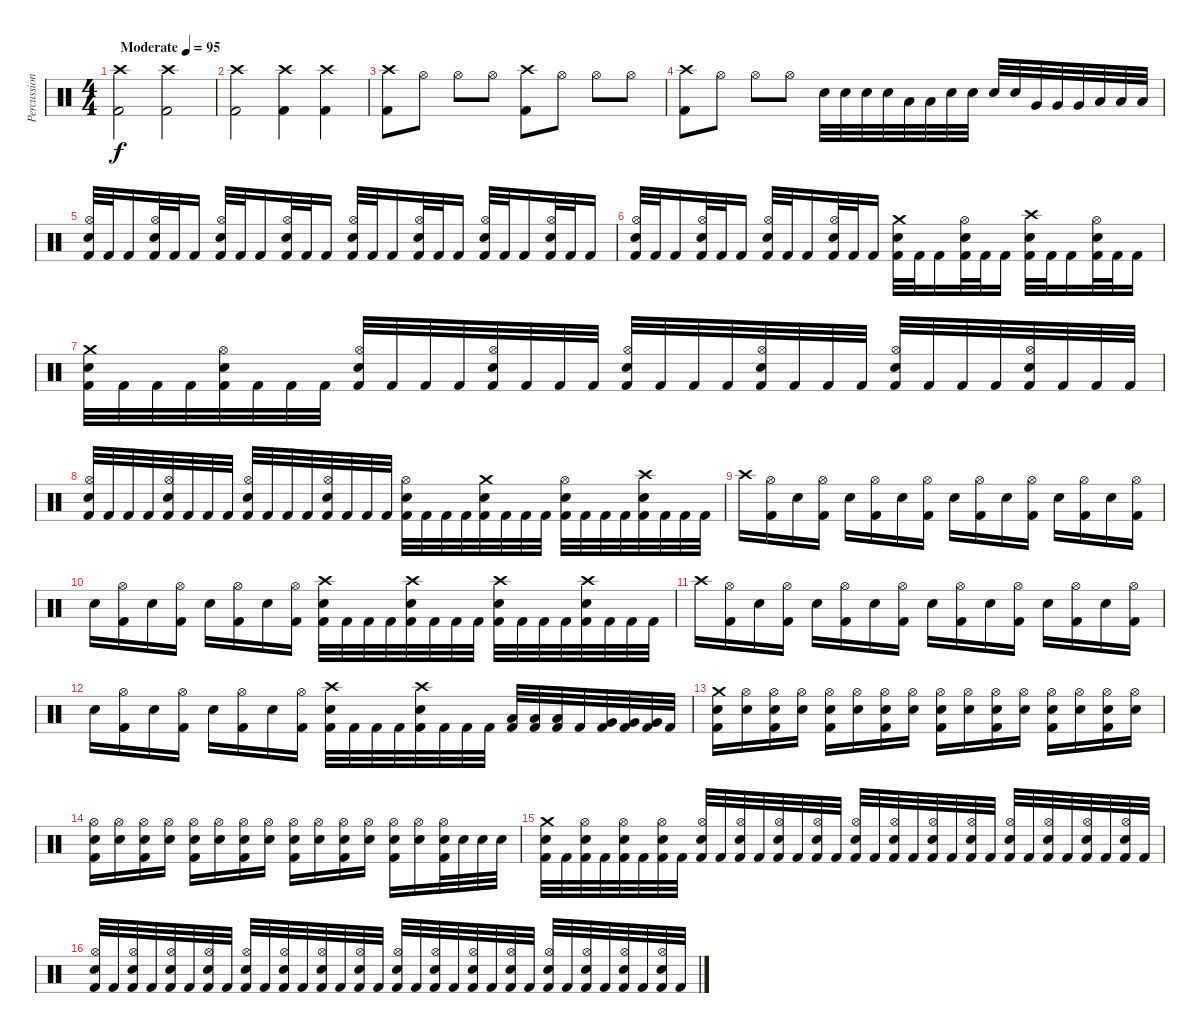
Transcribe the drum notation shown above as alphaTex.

\track ("Percussion" "Percussion") {instrument percussion}
\staff {score}
\articulation defaults
\ts (4 4)
\tempo (95 "Moderate")
\clef neutral
\ks c
("Crash high (hit)" "Kick (hit) 2").2{dy f} ("Crash high (hit)" "Kick (hit) 2").2 |
("Crash high (hit)" "Kick (hit) 2").2 ("Crash high (hit)" "Kick (hit) 2").4 ("Crash high (hit)" "Kick (hit) 2").4 |
("Crash high (hit)" "Kick (hit) 2").8 "Hi-Hat (open)".8 "Hi-Hat (open)".8 "Hi-Hat (open)".8 ("Crash high (hit)" "Kick (hit) 2").8 "Hi-Hat (open)".8 "Hi-Hat (open)".8 "Hi-Hat (open)".8 |
("Crash high (hit)" "Kick (hit) 2").8 "Hi-Hat (open)".8 "Hi-Hat (open)".8 "Hi-Hat (open)".8 "Electric Snare (hit)".32 "Electric Snare (hit)".32 "Electric Snare (hit)".32 "Electric Snare (hit)".32 "Low Tom (hit)".32 "Low Tom (hit)".32 "Electric Snare (hit)".32 "Electric Snare (hit)".32 "Electric Snare (hit)".32 "Electric Snare (hit)".32 "Very Low Tom (hit)".32 "Very Low Tom (hit)".32 "Very Low Tom (hit)".32 "Low Floor Tom (hit)".32 "Low Floor Tom (hit)".32 "Low Floor Tom (hit)".32 |
("Hi-Hat (open)" "Electric Snare (hit)" "Kick (hit) 2").32 "Kick (hit) 2".32 "Kick (hit) 2".16 ("Hi-Hat (open)" "Electric Snare (hit)" "Kick (hit) 2").32 "Kick (hit) 2".32 "Kick (hit) 2".16 ("Hi-Hat (open)" "Electric Snare (hit)" "Kick (hit) 2").32 "Kick (hit) 2".32 "Kick (hit) 2".16 ("Hi-Hat (open)" "Electric Snare (hit)" "Kick (hit) 2").32 "Kick (hit) 2".32 "Kick (hit) 2".16 ("Hi-Hat (open)" "Electric Snare (hit)" "Kick (hit) 2").32 "Kick (hit) 2".32 "Kick (hit) 2".16 ("Hi-Hat (open)" "Electric Snare (hit)" "Kick (hit) 2").32 "Kick (hit) 2".32 "Kick (hit) 2".16 ("Hi-Hat (open)" "Electric Snare (hit)" "Kick (hit) 2").32 "Kick (hit) 2".32 "Kick (hit) 2".16 ("Hi-Hat (open)" "Electric Snare (hit)" "Kick (hit) 2").32 "Kick (hit) 2".32 "Kick (hit) 2".16 |
("Hi-Hat (open)" "Electric Snare (hit)" "Kick (hit) 2").32 "Kick (hit) 2".32 "Kick (hit) 2".16 ("Hi-Hat (open)" "Electric Snare (hit)" "Kick (hit) 2").32 "Kick (hit) 2".32 "Kick (hit) 2".16 ("Hi-Hat (open)" "Electric Snare (hit)" "Kick (hit) 2").32 "Kick (hit) 2".32 "Kick (hit) 2".16 ("Hi-Hat (open)" "Electric Snare (hit)" "Kick (hit) 2").32 "Kick (hit) 2".32 "Kick (hit) 2".16 ("Crash medium (hit)" "Electric Snare (hit)" "Kick (hit) 2").32 "Kick (hit) 2".32 "Kick (hit) 2".16 ("Hi-Hat (open)" "Electric Snare (hit)" "Kick (hit) 2").32 "Kick (hit) 2".32 "Kick (hit) 2".16 ("Crash high (hit)" "Electric Snare (hit)" "Kick (hit) 2").32 "Kick (hit) 2".32 "Kick (hit) 2".16 ("Hi-Hat (open)" "Electric Snare (hit)" "Kick (hit) 2").32 "Kick (hit) 2".32 "Kick (hit) 2".16 |
("Crash medium (hit)" "Electric Snare (hit)" "Kick (hit) 2").32 "Kick (hit) 2".32 "Kick (hit) 2".32 "Kick (hit) 2".32 ("Hi-Hat (open)" "Electric Snare (hit)" "Kick (hit) 2").32 "Kick (hit) 2".32 "Kick (hit) 2".32 "Kick (hit) 2".32 ("Hi-Hat (open)" "Electric Snare (hit)" "Kick (hit) 2").32 "Kick (hit) 2".32 "Kick (hit) 2".32 "Kick (hit) 2".32 ("Hi-Hat (open)" "Electric Snare (hit)" "Kick (hit) 2").32 "Kick (hit) 2".32 "Kick (hit) 2".32 "Kick (hit) 2".32 ("Hi-Hat (open)" "Electric Snare (hit)" "Kick (hit) 2").32 "Kick (hit) 2".32 "Kick (hit) 2".32 "Kick (hit) 2".32 ("Hi-Hat (open)" "Electric Snare (hit)" "Kick (hit) 2").32 "Kick (hit) 2".32 "Kick (hit) 2".32 "Kick (hit) 2".32 ("Hi-Hat (open)" "Electric Snare (hit)" "Kick (hit) 2").32 "Kick (hit) 2".32 "Kick (hit) 2".32 "Kick (hit) 2".32 ("Hi-Hat (open)" "Electric Snare (hit)" "Kick (hit) 2").32 "Kick (hit) 2".32 "Kick (hit) 2".32 "Kick (hit) 2".32 |
("Hi-Hat (open)" "Electric Snare (hit)" "Kick (hit) 2").32 "Kick (hit) 2".32 "Kick (hit) 2".32 "Kick (hit) 2".32 ("Hi-Hat (open)" "Electric Snare (hit)" "Kick (hit) 2").32 "Kick (hit) 2".32 "Kick (hit) 2".32 "Kick (hit) 2".32 ("Hi-Hat (open)" "Electric Snare (hit)" "Kick (hit) 2").32 "Kick (hit) 2".32 "Kick (hit) 2".32 "Kick (hit) 2".32 ("Hi-Hat (open)" "Electric Snare (hit)" "Kick (hit) 2").32 "Kick (hit) 2".32 "Kick (hit) 2".32 "Kick (hit) 2".32 ("Hi-Hat (open)" "Electric Snare (hit)" "Kick (hit) 2").32 "Kick (hit) 2".32 "Kick (hit) 2".32 "Kick (hit) 2".32 ("Crash medium (hit)" "Electric Snare (hit)" "Kick (hit) 2").32 "Kick (hit) 2".32 "Kick (hit) 2".32 "Kick (hit) 2".32 ("Hi-Hat (open)" "Electric Snare (hit)" "Kick (hit) 2").32 "Kick (hit) 2".32 "Kick (hit) 2".32 "Kick (hit) 2".32 ("Crash high (hit)" "Electric Snare (hit)" "Kick (hit) 2").32 "Kick (hit) 2".32 "Kick (hit) 2".32 "Kick (hit) 2".32 |
"Crash high (hit)".16 ("Hi-Hat (open)" "Kick (hit) 2").16 "Electric Snare (hit)".16 ("Hi-Hat (open)" "Kick (hit) 2").16 "Electric Snare (hit)".16 ("Hi-Hat (open)" "Kick (hit) 2").16 "Electric Snare (hit)".16 ("Hi-Hat (open)" "Kick (hit) 2").16 "Electric Snare (hit)".16 ("Hi-Hat (open)" "Kick (hit) 2").16 "Electric Snare (hit)".16 ("Hi-Hat (open)" "Kick (hit) 2").16 "Electric Snare (hit)".16 ("Hi-Hat (open)" "Kick (hit) 2").16 "Electric Snare (hit)".16 ("Hi-Hat (open)" "Kick (hit) 2").16 |
"Electric Snare (hit)".16 ("Hi-Hat (open)" "Kick (hit) 2").16 "Electric Snare (hit)".16 ("Hi-Hat (open)" "Kick (hit) 2").16 "Electric Snare (hit)".16 ("Hi-Hat (open)" "Kick (hit) 2").16 "Electric Snare (hit)".16 ("Hi-Hat (open)" "Kick (hit) 2").16 ("Crash high (hit)" "Electric Snare (hit)" "Kick (hit) 2").32 "Kick (hit) 2".32 "Kick (hit) 2".32 "Kick (hit) 2".32 ("Crash high (hit)" "Electric Snare (hit)" "Kick (hit) 2").32 "Kick (hit) 2".32 "Kick (hit) 2".32 "Kick (hit) 2".32 ("Crash high (hit)" "Electric Snare (hit)" "Kick (hit) 2").32 "Kick (hit) 2".32 "Kick (hit) 2".32 "Kick (hit) 2".32 ("Crash high (hit)" "Electric Snare (hit)" "Kick (hit) 2").32 "Kick (hit) 2".32 "Kick (hit) 2".32 "Kick (hit) 2".32 |
"Crash high (hit)".16 ("Hi-Hat (open)" "Kick (hit) 2").16 "Electric Snare (hit)".16 ("Hi-Hat (open)" "Kick (hit) 2").16 "Electric Snare (hit)".16 ("Hi-Hat (open)" "Kick (hit) 2").16 "Electric Snare (hit)".16 ("Hi-Hat (open)" "Kick (hit) 2").16 "Electric Snare (hit)".16 ("Hi-Hat (open)" "Kick (hit) 2").16 "Electric Snare (hit)".16 ("Hi-Hat (open)" "Kick (hit) 2").16 "Electric Snare (hit)".16 ("Hi-Hat (open)" "Kick (hit) 2").16 "Electric Snare (hit)".16 ("Hi-Hat (open)" "Kick (hit) 2").16 |
"Electric Snare (hit)".16 ("Hi-Hat (open)" "Kick (hit) 2").16 "Electric Snare (hit)".16 ("Hi-Hat (open)" "Kick (hit) 2").16 "Electric Snare (hit)".16 ("Hi-Hat (open)" "Kick (hit) 2").16 "Electric Snare (hit)".16 ("Hi-Hat (open)" "Kick (hit) 2").16 ("Crash high (hit)" "Electric Snare (hit)" "Kick (hit) 2").32 "Kick (hit) 2".32 "Kick (hit) 2".32 "Kick (hit) 2".32 ("Crash high (hit)" "Electric Snare (hit)" "Kick (hit) 2").32 "Kick (hit) 2".32 "Kick (hit) 2".32 "Kick (hit) 2".32 ("Low Tom (hit)" "Kick (hit) 2").32 ("Low Tom (hit)" "Kick (hit) 2").32 ("Low Tom (hit)" "Kick (hit) 2").32 "Kick (hit) 2".32 ("Very Low Tom (hit)" "Kick (hit) 2").32 ("Very Low Tom (hit)" "Kick (hit) 2").32 ("Very Low Tom (hit)" "Kick (hit) 2").32 "Kick (hit) 2".32 |
("Crash medium (hit)" "Electric Snare (hit)" "Kick (hit) 2").16 ("Hi-Hat (open)" "Electric Snare (hit)").16 ("Hi-Hat (open)" "Electric Snare (hit)" "Kick (hit) 2").16 ("Hi-Hat (open)" "Electric Snare (hit)").16 ("Hi-Hat (open)" "Electric Snare (hit)" "Kick (hit) 2").16 ("Hi-Hat (open)" "Electric Snare (hit)").16 ("Hi-Hat (open)" "Electric Snare (hit)" "Kick (hit) 2").16 ("Hi-Hat (open)" "Electric Snare (hit)").16 ("Hi-Hat (open)" "Electric Snare (hit)" "Kick (hit) 2").16 ("Hi-Hat (open)" "Electric Snare (hit)").16 ("Hi-Hat (open)" "Electric Snare (hit)" "Kick (hit) 2").16 ("Hi-Hat (open)" "Electric Snare (hit)").16 ("Hi-Hat (open)" "Electric Snare (hit)" "Kick (hit) 2").16 ("Hi-Hat (open)" "Electric Snare (hit)").16 ("Hi-Hat (open)" "Electric Snare (hit)" "Kick (hit) 2").16 ("Hi-Hat (open)" "Electric Snare (hit)").16 |
("Hi-Hat (open)" "Electric Snare (hit)" "Kick (hit) 2").16 ("Hi-Hat (open)" "Electric Snare (hit)").16 ("Hi-Hat (open)" "Electric Snare (hit)" "Kick (hit) 2").16 ("Hi-Hat (open)" "Electric Snare (hit)").16 ("Hi-Hat (open)" "Electric Snare (hit)" "Kick (hit) 2").16 ("Hi-Hat (open)" "Electric Snare (hit)").16 ("Hi-Hat (open)" "Electric Snare (hit)" "Kick (hit) 2").16 ("Hi-Hat (open)" "Electric Snare (hit)").16 ("Hi-Hat (open)" "Electric Snare (hit)" "Kick (hit) 2").16 ("Hi-Hat (open)" "Electric Snare (hit)").16 ("Hi-Hat (open)" "Electric Snare (hit)" "Kick (hit) 2").16 ("Hi-Hat (open)" "Electric Snare (hit)").16 ("Hi-Hat (open)" "Electric Snare (hit)" "Kick (hit) 2").16 ("Hi-Hat (open)" "Electric Snare (hit)").16 ("Hi-Hat (open)" "Electric Snare (hit)" "Kick (hit) 2").32 "Electric Snare (hit)".32 "Electric Snare (hit)".32 "Electric Snare (hit)".32 |
("Crash medium (hit)" "Electric Snare (hit)" "Kick (hit) 2").32 "Kick (hit) 2".32 ("Hi-Hat (open)" "Electric Snare (hit)" "Kick (hit) 2").32 "Kick (hit) 2".32 ("Hi-Hat (open)" "Electric Snare (hit)" "Kick (hit) 2").32 "Kick (hit) 2".32 ("Hi-Hat (open)" "Electric Snare (hit)" "Kick (hit) 2").32 "Kick (hit) 2".32 ("Hi-Hat (open)" "Electric Snare (hit)" "Kick (hit) 2").32 "Kick (hit) 2".32 ("Hi-Hat (open)" "Electric Snare (hit)" "Kick (hit) 2").32 "Kick (hit) 2".32 ("Hi-Hat (open)" "Electric Snare (hit)" "Kick (hit) 2").32 "Kick (hit) 2".32 ("Hi-Hat (open)" "Electric Snare (hit)" "Kick (hit) 2").32 "Kick (hit) 2".32 ("Hi-Hat (open)" "Electric Snare (hit)" "Kick (hit) 2").32 "Kick (hit) 2".32 ("Hi-Hat (open)" "Electric Snare (hit)" "Kick (hit) 2").32 "Kick (hit) 2".32 ("Hi-Hat (open)" "Electric Snare (hit)" "Kick (hit) 2").32 "Kick (hit) 2".32 ("Hi-Hat (open)" "Electric Snare (hit)" "Kick (hit) 2").32 "Kick (hit) 2".32 ("Hi-Hat (open)" "Electric Snare (hit)" "Kick (hit) 2").32 "Kick (hit) 2".32 ("Hi-Hat (open)" "Electric Snare (hit)" "Kick (hit) 2").32 "Kick (hit) 2".32 ("Hi-Hat (open)" "Electric Snare (hit)" "Kick (hit) 2").32 "Kick (hit) 2".32 ("Hi-Hat (open)" "Electric Snare (hit)" "Kick (hit) 2").32 "Kick (hit) 2".32 |
("Hi-Hat (open)" "Electric Snare (hit)" "Kick (hit) 2").32 "Kick (hit) 2".32 ("Hi-Hat (open)" "Electric Snare (hit)" "Kick (hit) 2").32 "Kick (hit) 2".32 ("Hi-Hat (open)" "Electric Snare (hit)" "Kick (hit) 2").32 "Kick (hit) 2".32 ("Hi-Hat (open)" "Electric Snare (hit)" "Kick (hit) 2").32 "Kick (hit) 2".32 ("Hi-Hat (open)" "Electric Snare (hit)" "Kick (hit) 2").32 "Kick (hit) 2".32 ("Hi-Hat (open)" "Electric Snare (hit)" "Kick (hit) 2").32 "Kick (hit) 2".32 ("Hi-Hat (open)" "Electric Snare (hit)" "Kick (hit) 2").32 "Kick (hit) 2".32 ("Hi-Hat (open)" "Electric Snare (hit)" "Kick (hit) 2").32 "Kick (hit) 2".32 ("Hi-Hat (open)" "Electric Snare (hit)" "Kick (hit) 2").32 "Kick (hit) 2".32 ("Hi-Hat (open)" "Electric Snare (hit)" "Kick (hit) 2").32 "Kick (hit) 2".32 ("Hi-Hat (open)" "Electric Snare (hit)" "Kick (hit) 2").32 "Kick (hit) 2".32 ("Hi-Hat (open)" "Electric Snare (hit)" "Kick (hit) 2").32 "Kick (hit) 2".32 ("Hi-Hat (open)" "Electric Snare (hit)" "Kick (hit) 2").32 "Kick (hit) 2".32 ("Hi-Hat (open)" "Electric Snare (hit)" "Kick (hit) 2").32 "Kick (hit) 2".32 ("Hi-Hat (open)" "Electric Snare (hit)" "Kick (hit) 2").32 "Kick (hit) 2".32 ("Hi-Hat (open)" "Electric Snare (hit)" "Kick (hit) 2").32 "Kick (hit) 2".32
